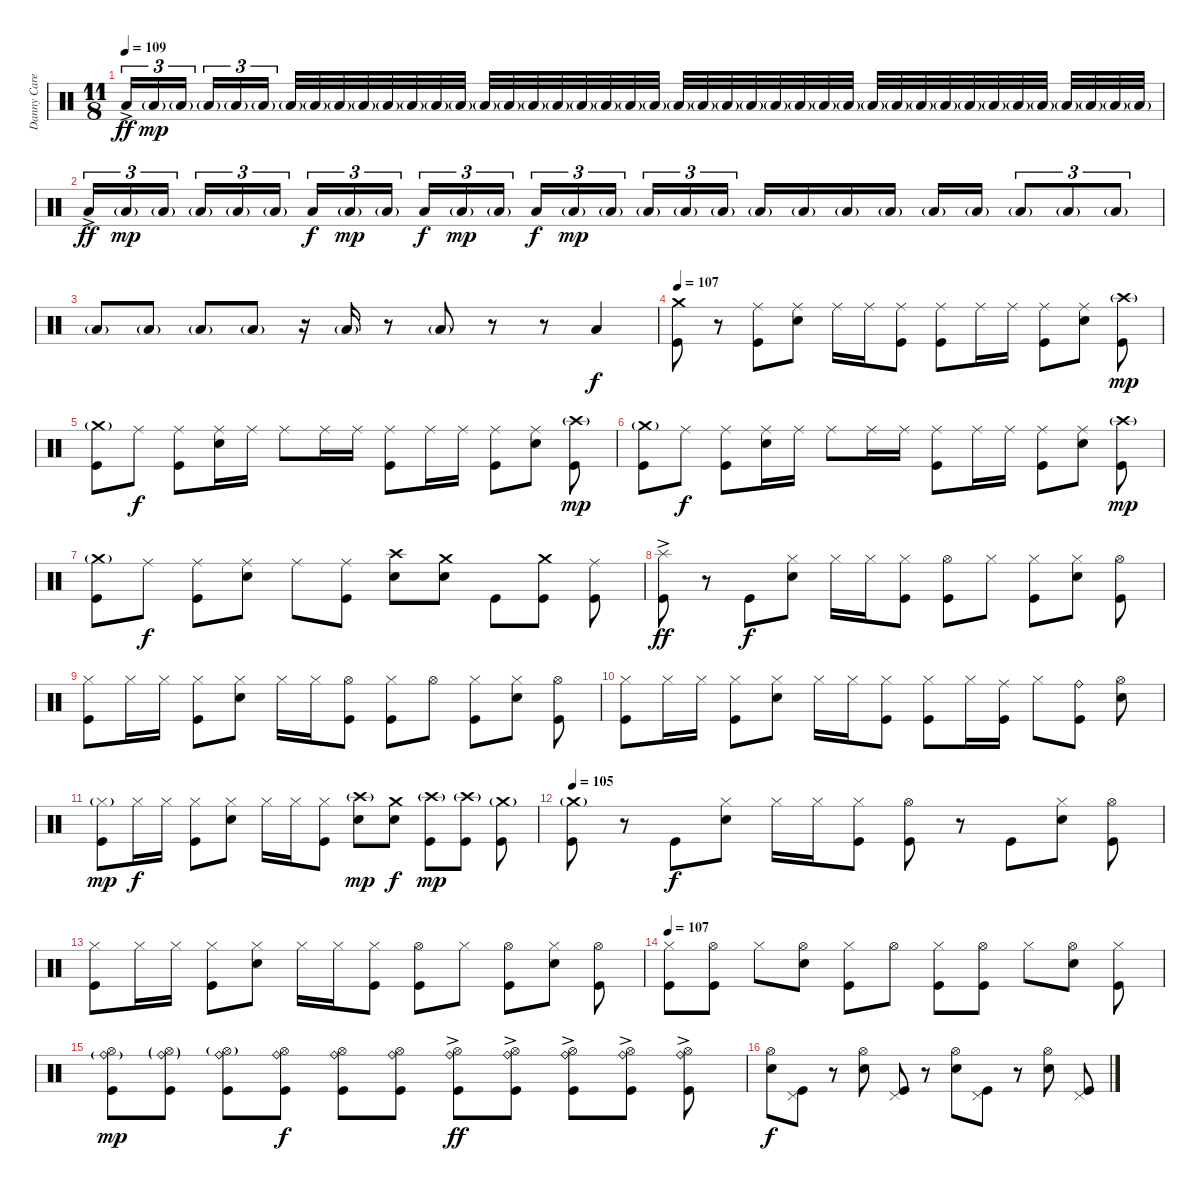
\track ("Danny Carey (drum)" "Danny Care") {instrument percussion}
\staff {score}
\articulation defaults
\ts (11 8)
\tempo 109
\clef neutral
\ks c "Low Tom (hit)"{ac}.16{tu (3 2) dy ff volume 16} "Low Tom (hit)"{g}.16{tu (3 2) dy mp} "Low Tom (hit)"{g}.16{tu (3 2)} "Low Tom (hit)"{g}.16{tu (3 2)} "Low Tom (hit)"{g}.16{tu (3 2)} "Low Tom (hit)"{g}.16{tu (3 2)} "Low Tom (hit)"{g}.32 "Low Tom (hit)"{g}.32 "Low Tom (hit)"{g}.32 "Low Tom (hit)"{g}.32 "Low Tom (hit)"{g}.32 "Low Tom (hit)"{g}.32 "Low Tom (hit)"{g}.32 "Low Tom (hit)"{g}.32 "Low Tom (hit)"{g}.32 "Low Tom (hit)"{g}.32 "Low Tom (hit)"{g}.32 "Low Tom (hit)"{g}.32 "Low Tom (hit)"{g}.32 "Low Tom (hit)"{g}.32 "Low Tom (hit)"{g}.32 "Low Tom (hit)"{g}.32 "Low Tom (hit)"{g}.32 "Low Tom (hit)"{g}.32 "Low Tom (hit)"{g}.32 "Low Tom (hit)"{g}.32 "Low Tom (hit)"{g}.32 "Low Tom (hit)"{g}.32 "Low Tom (hit)"{g}.32 "Low Tom (hit)"{g}.32 "Low Tom (hit)"{g}.32 "Low Tom (hit)"{g}.32 "Low Tom (hit)"{g}.32 "Low Tom (hit)"{g}.32 "Low Tom (hit)"{g}.32 "Low Tom (hit)"{g}.32 "Low Tom (hit)"{g}.32 "Low Tom (hit)"{g}.32 "Low Tom (hit)"{g}.32 "Low Tom (hit)"{g}.32 "Low Tom (hit)"{g}.32 "Low Tom (hit)"{g}.32
|
"Low Tom (hit)"{ac}.16{tu (3 2) dy ff} "Low Tom (hit)"{g}.16{tu (3 2) dy mp} "Low Tom (hit)"{g}.16{tu (3 2)} "Low Tom (hit)"{g}.16{tu (3 2)} "Low Tom (hit)"{g}.16{tu (3 2)} "Low Tom (hit)"{g}.16{tu (3 2)} "Low Tom (hit)".16{tu (3 2) dy f} "Low Tom (hit)"{g}.16{tu (3 2) dy mp} "Low Tom (hit)"{g}.16{tu (3 2)} "Low Tom (hit)".16{tu (3 2) dy f} "Low Tom (hit)"{g}.16{tu (3 2) dy mp} "Low Tom (hit)"{g}.16{tu (3 2)} "Low Tom (hit)".16{tu (3 2) dy f} "Low Tom (hit)"{g}.16{tu (3 2) dy mp} "Low Tom (hit)"{g}.16{tu (3 2)} "Low Tom (hit)"{g}.16{tu (3 2) volume 16} "Low Tom (hit)"{g}.16{tu (3 2)} "Low Tom (hit)"{g}.16{tu (3 2)} "Low Tom (hit)"{g}.16 "Low Tom (hit)"{g}.16 "Low Tom (hit)"{g}.16 "Low Tom (hit)"{g}.16 "Low Tom (hit)"{g}.16 "Low Tom (hit)"{g}.16 "Low Tom (hit)"{g}.8{tu (3 2)} "Low Tom (hit)"{g}.8{tu (3 2)} "Low Tom (hit)"{g}.8{tu (3 2)} |
"Low Tom (hit)"{g}.8 "Low Tom (hit)"{g}.8 "Low Tom (hit)"{g}.8 "Low Tom (hit)"{g}.8 r.16 "Low Tom (hit)"{g}.16 r.8 "Low Tom (hit)"{g}.8 r.8 r.8 "Low Tom (hit)".4{dy f volume 12} |
\tempo 107
("Crash medium (hit)" "Kick (hit)").8{volume 12} r.8 ("Ride (middle)" "Kick (hit)").8 ("Ride (middle)" "Snare (hit) 2").8 "Ride (middle)".16 "Ride (middle)".16 ("Ride (middle)" "Kick (hit)").8 ("Ride (middle)" "Kick (hit)").8 "Ride (middle)".16 "Ride (middle)".16 ("Ride (middle)" "Kick (hit)").8 ("Ride (middle)" "Snare (hit) 2").8 ("Crash high (hit)"{g} "Kick (hit)").8{dy mp} |
("Crash medium (hit)"{g} "Kick (hit)").8 "Ride (middle)".8{dy f} ("Ride (middle)" "Kick (hit)").8 ("Ride (middle)" "Snare (hit) 2").16 "Ride (middle)".16 "Ride (middle)".8 "Ride (middle)".16 "Ride (middle)".16 ("Ride (middle)" "Kick (hit)").8 "Ride (middle)".16 "Ride (middle)".16 ("Ride (middle)" "Kick (hit)").8 ("Ride (middle)" "Snare (hit) 2").8 ("Crash high (hit)"{g} "Kick (hit)").8{dy mp} |
("Crash medium (hit)"{g} "Kick (hit)").8 "Ride (middle)".8{dy f} ("Ride (middle)" "Kick (hit)").8 ("Ride (middle)" "Snare (hit) 2").16 "Ride (middle)".16 "Ride (middle)".8 "Ride (middle)".16 "Ride (middle)".16 ("Ride (middle)" "Kick (hit)").8 "Ride (middle)".16 "Ride (middle)".16 ("Ride (middle)" "Kick (hit)").8 ("Ride (middle)" "Snare (hit) 2").8 ("Crash high (hit)"{g} "Kick (hit)").8{dy mp} |
("Crash medium (hit)"{g} "Kick (hit)").8 "Ride (middle)".8{dy f} ("Ride (middle)" "Kick (hit)").8 ("Ride (middle)" "Snare (hit) 2").8 "Ride (middle)".8 ("Ride (middle)" "Kick (hit)").8 ("Crash high (hit)" "Snare (hit) 2").8 ("Crash medium (hit)" "Snare (hit) 2").8 "Kick (hit)".8 ("Crash medium (hit)" "Kick (hit)").8 ("Ride (middle)" "Kick (hit)").8 |
("Splash (hit)"{ac} "Kick (hit)").8{dy ff} r.8 "Kick (hit)".8{dy f} ("Hi-Hat (closed)" "Snare (hit) 2").8 "Hi-Hat (closed)".16 "Hi-Hat (closed)".16 ("Hi-Hat (closed)" "Kick (hit)").8 ("Hi-Hat (open)" "Kick (hit)").8 "Hi-Hat (closed)".8 ("Hi-Hat (closed)" "Kick (hit)").8 ("Hi-Hat (closed)" "Snare (hit) 2").8 ("Hi-Hat (open)" "Kick (hit)").8 |
("Hi-Hat (closed)" "Kick (hit)").8 "Hi-Hat (closed)".16 "Hi-Hat (closed)".16 ("Hi-Hat (closed)" "Kick (hit)").8 ("Hi-Hat (closed)" "Snare (hit) 2").8 "Hi-Hat (closed)".16 "Hi-Hat (closed)".16 ("Hi-Hat (open)" "Kick (hit)").8 ("Hi-Hat (closed)" "Kick (hit)").8 "Hi-Hat (open)".8 ("Hi-Hat (closed)" "Kick (hit)").8 ("Hi-Hat (closed)" "Snare (hit) 2").8 ("Hi-Hat (open)" "Kick (hit)").8 |
("Hi-Hat (closed)" "Kick (hit)").8 "Hi-Hat (closed)".16 "Hi-Hat (closed)".16 ("Hi-Hat (closed)" "Kick (hit)").8 ("Hi-Hat (closed)" "Snare (hit) 2").8 "Hi-Hat (closed)".16 "Hi-Hat (closed)".16 ("Hi-Hat (closed)" "Kick (hit)").8 ("Hi-Hat (closed)" "Kick (hit)").8 "Hi-Hat (closed)".16 ("Ride (middle)" "Kick (hit)").16 "Hi-Hat (closed)".8 ("Ride (bell)" "Kick (hit)").8 ("Hi-Hat (open)" "Snare (hit) 2").8 |
("Hi-Hat (closed)"{g} "Kick (hit)").8{dy mp} "Hi-Hat (closed)".16{dy f} "Hi-Hat (closed)".16 ("Hi-Hat (closed)" "Kick (hit)").8 ("Hi-Hat (closed)" "Snare (hit) 2").8 "Hi-Hat (closed)".16 "Hi-Hat (closed)".16 ("Hi-Hat (closed)" "Kick (hit)").8 ("Crash high (hit)"{g} "Snare (hit) 2").8{dy mp} ("Crash medium (hit)" "Snare (hit) 2").8{dy f} ("Crash high (hit)"{g} "Kick (hit)").8{dy mp} ("Crash high (hit)"{g} "Kick (hit)").8 ("Crash medium (hit)"{g} "Kick (hit)").8 |
\tempo 105
("Crash medium (hit)"{g} "Kick (hit)").8 r.8 "Kick (hit)".8{dy f} ("Hi-Hat (closed)" "Snare (hit) 2").8 "Hi-Hat (closed)".16 "Hi-Hat (closed)".16 ("Hi-Hat (closed)" "Kick (hit)").8 ("Hi-Hat (open)" "Kick (hit)").8 r.8 "Kick (hit)".8 ("Hi-Hat (closed)" "Snare (hit) 2").8 ("Hi-Hat (open)" "Kick (hit)").8 |
("Hi-Hat (closed)" "Kick (hit)").8 "Hi-Hat (closed)".16 "Hi-Hat (closed)".16 ("Hi-Hat (closed)" "Kick (hit)").8 ("Hi-Hat (closed)" "Snare (hit) 2").8 "Hi-Hat (closed)".16 "Hi-Hat (closed)".16 ("Hi-Hat (closed)" "Kick (hit)").8 ("Hi-Hat (open)" "Kick (hit)").8 "Hi-Hat (closed)".8 ("Hi-Hat (open)" "Kick (hit)").8 ("Hi-Hat (closed)" "Snare (hit) 2").8 ("Hi-Hat (open)" "Kick (hit)").8 |
\tempo 107
("Hi-Hat (closed)" "Kick (hit)").8 ("Hi-Hat (open)" "Kick (hit)").8 "Hi-Hat (closed)".8 ("Hi-Hat (open)" "Snare (hit) 2").8 ("Hi-Hat (closed)" "Kick (hit)").8 "Hi-Hat (open)".8 ("Hi-Hat (closed)" "Kick (hit)").8 ("Hi-Hat (open)" "Kick (hit)").8 "Hi-Hat (closed)".8 ("Hi-Hat (open)" "Snare (hit) 2").8 ("Hi-Hat (closed)" "Kick (hit)").8 |
("Hi-Hat (open)" "Ride (bell)"{g} "Kick (hit)").8{dy mp volume 10} ("Hi-Hat (open)"{g} "Ride (bell)"{g} "Kick (hit)").8{volume 12} ("Hi-Hat (open)"{g} "Ride (bell)" "Kick (hit)").8 ("Hi-Hat (open)" "Ride (bell)" "Kick (hit)").8{dy f} ("Hi-Hat (open)" "Ride (bell)" "Kick (hit)").8 ("Hi-Hat (open)" "Ride (bell)" "Kick (hit)").8 ("Hi-Hat (open)" "Ride (bell)" "Kick (hit)"{ac}).8{dy ff volume 16} ("Hi-Hat (open)" "Ride (bell)" "Kick (hit)"{ac}).8 ("Hi-Hat (open)" "Ride (bell)" "Kick (hit)"{ac}).8 ("Hi-Hat (open)" "Ride (bell)" "Kick (hit)"{ac}).8 ("Hi-Hat (open)" "Ride (bell)" "Kick (hit)"{ac}).8 |
("Hi-Hat (open)" "Snare (hit) 2").8{dy f} ("Pedal Hi-Hat (hit)" "Kick (hit)").8 r.8 ("Hi-Hat (open)" "Snare (hit) 2").8 ("Pedal Hi-Hat (hit)" "Kick (hit)").8 r.8 ("Hi-Hat (open)" "Snare (hit) 2").8 ("Pedal Hi-Hat (hit)" "Kick (hit)").8 r.8 ("Hi-Hat (open)" "Snare (hit) 2").8 ("Pedal Hi-Hat (hit)" "Kick (hit)").8
